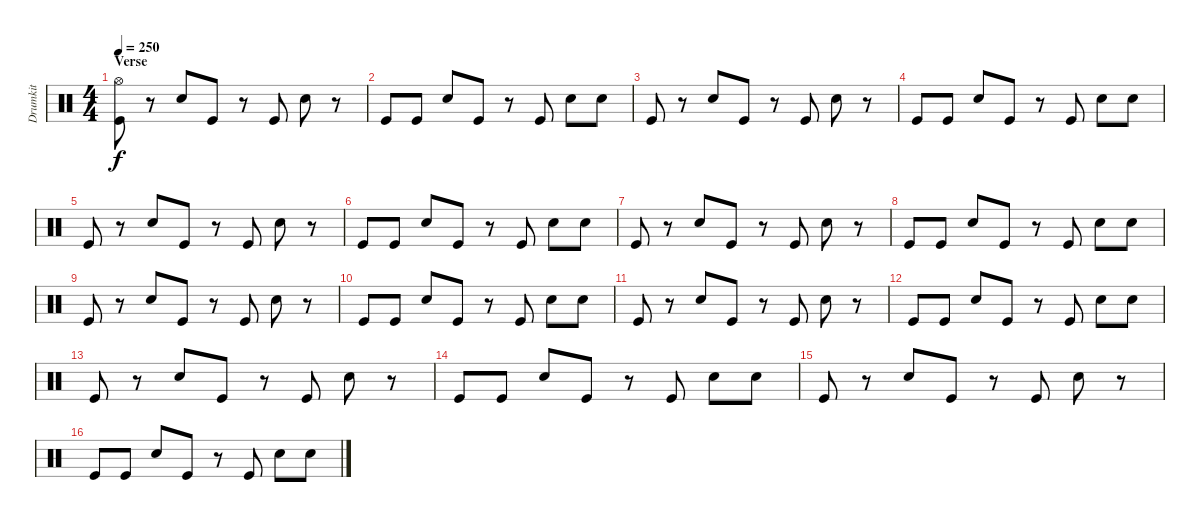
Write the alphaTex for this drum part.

\track ("Drumkit" "Drumkit") {instrument percussion}
\staff {score}
\articulation defaults
\ts (4 4)
\section ("" "Verse")
\tempo 250
\clef neutral
\ks c
("Hi-Hat (open)" "Kick (hit)").8{dy f} r.8 "Snare (hit) 2".8 "Kick (hit)".8 r.8 "Kick (hit)".8 "Snare (hit) 2".8 r.8 |
"Kick (hit)".8 "Kick (hit)".8 "Snare (hit) 2".8 "Kick (hit)".8 r.8 "Kick (hit)".8 "Snare (hit) 2".8 "Snare (hit) 2".8 |
"Kick (hit)".8 r.8 "Snare (hit) 2".8 "Kick (hit)".8 r.8 "Kick (hit)".8 "Snare (hit) 2".8 r.8 |
"Kick (hit)".8 "Kick (hit)".8 "Snare (hit) 2".8 "Kick (hit)".8 r.8 "Kick (hit)".8 "Snare (hit) 2".8 "Snare (hit) 2".8 |
"Kick (hit)".8 r.8 "Snare (hit) 2".8 "Kick (hit)".8 r.8 "Kick (hit)".8 "Snare (hit) 2".8 r.8 |
"Kick (hit)".8 "Kick (hit)".8 "Snare (hit) 2".8 "Kick (hit)".8 r.8 "Kick (hit)".8 "Snare (hit) 2".8 "Snare (hit) 2".8 |
"Kick (hit)".8 r.8 "Snare (hit) 2".8 "Kick (hit)".8 r.8 "Kick (hit)".8 "Snare (hit) 2".8 r.8 |
"Kick (hit)".8 "Kick (hit)".8 "Snare (hit) 2".8 "Kick (hit)".8 r.8 "Kick (hit)".8 "Snare (hit) 2".8 "Snare (hit) 2".8 |
"Kick (hit)".8 r.8 "Snare (hit) 2".8 "Kick (hit)".8 r.8 "Kick (hit)".8 "Snare (hit) 2".8 r.8 |
"Kick (hit)".8 "Kick (hit)".8 "Snare (hit) 2".8 "Kick (hit)".8 r.8 "Kick (hit)".8 "Snare (hit) 2".8 "Snare (hit) 2".8 |
"Kick (hit)".8 r.8 "Snare (hit) 2".8 "Kick (hit)".8 r.8 "Kick (hit)".8 "Snare (hit) 2".8 r.8 |
"Kick (hit)".8 "Kick (hit)".8 "Snare (hit) 2".8 "Kick (hit)".8 r.8 "Kick (hit)".8 "Snare (hit) 2".8 "Snare (hit) 2".8 |
"Kick (hit)".8 r.8 "Snare (hit) 2".8 "Kick (hit)".8 r.8 "Kick (hit)".8 "Snare (hit) 2".8 r.8 |
"Kick (hit)".8 "Kick (hit)".8 "Snare (hit) 2".8 "Kick (hit)".8 r.8 "Kick (hit)".8 "Snare (hit) 2".8 "Snare (hit) 2".8 |
"Kick (hit)".8 r.8 "Snare (hit) 2".8 "Kick (hit)".8 r.8 "Kick (hit)".8 "Snare (hit) 2".8 r.8 |
"Kick (hit)".8 "Kick (hit)".8 "Snare (hit) 2".8 "Kick (hit)".8 r.8 "Kick (hit)".8 "Snare (hit) 2".8 "Snare (hit) 2".8
